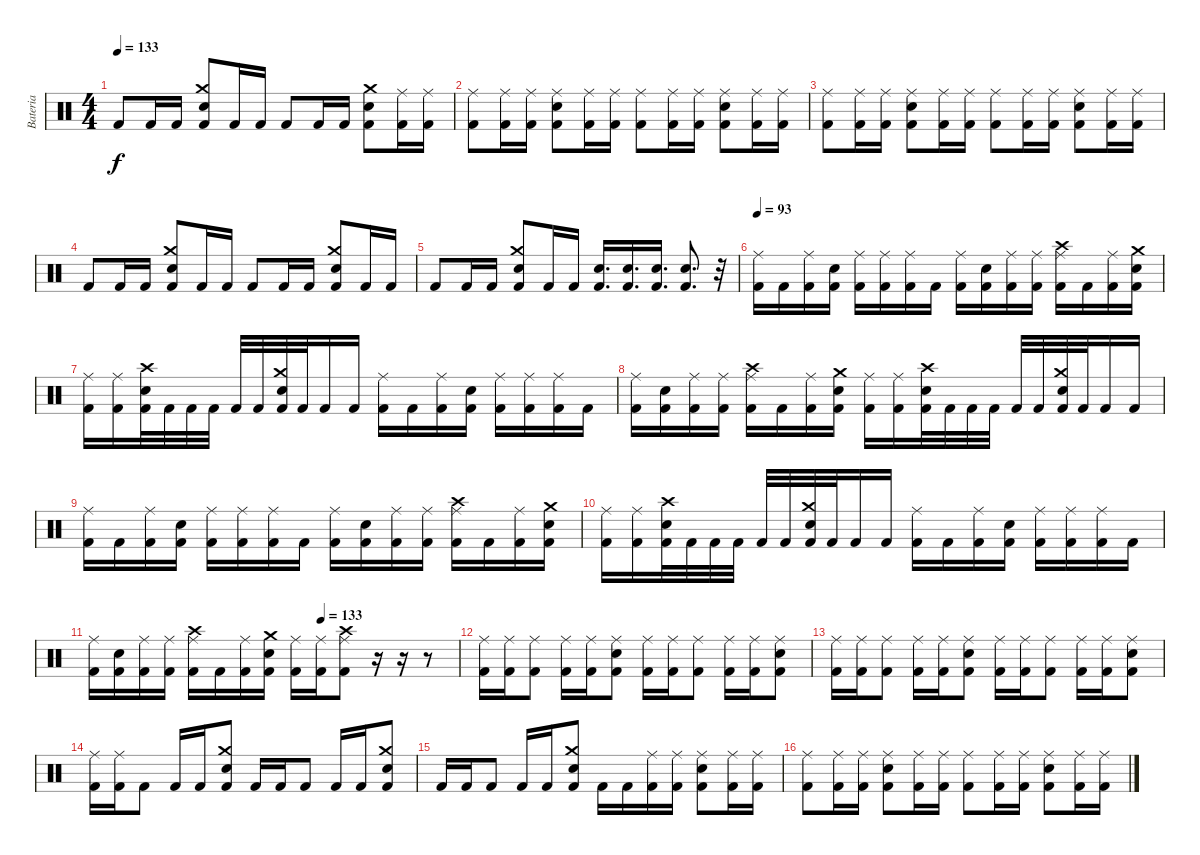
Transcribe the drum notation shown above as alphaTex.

\track ("Bateria" "Bateria") {instrument percussion}
\staff {score}
\articulation defaults
\ts (4 4)
\tempo 133
\clef neutral
\ks c "Kick (hit) 2".8{dy f} "Kick (hit) 2".16 "Kick (hit) 2".16
("Crash medium (hit)" "Snare (hit) 2" "Kick (hit) 2").8 "Kick (hit) 2".16 "Kick (hit) 2".16 "Kick (hit) 2".8 "Kick (hit) 2".16 "Kick (hit) 2".16 ("Crash medium (hit)" "Snare (hit) 2" "Kick (hit) 2").8 ("Ride (middle)" "Kick (hit) 2").16 ("Ride (middle)" "Kick (hit) 2").16 |
("Ride (middle)" "Kick (hit) 2").8 ("Ride (middle)" "Kick (hit) 2").16 ("Ride (middle)" "Kick (hit) 2").16 ("Snare (hit) 2" "Ride (middle)" "Kick (hit) 2").8 ("Ride (middle)" "Kick (hit) 2").16 ("Ride (middle)" "Kick (hit) 2").16 ("Ride (middle)" "Kick (hit) 2").8 ("Ride (middle)" "Kick (hit) 2").16 ("Ride (middle)" "Kick (hit) 2").16 ("Snare (hit) 2" "Ride (middle)" "Kick (hit) 2").8 ("Ride (middle)" "Kick (hit) 2").16 ("Ride (middle)" "Kick (hit) 2").16 |
("Ride (middle)" "Kick (hit) 2").8 ("Ride (middle)" "Kick (hit) 2").16 ("Ride (middle)" "Kick (hit) 2").16 ("Snare (hit) 2" "Ride (middle)" "Kick (hit) 2").8 ("Ride (middle)" "Kick (hit) 2").16 ("Ride (middle)" "Kick (hit) 2").16 ("Ride (middle)" "Kick (hit) 2").8 ("Ride (middle)" "Kick (hit) 2").16 ("Ride (middle)" "Kick (hit) 2").16 ("Snare (hit) 2" "Ride (middle)" "Kick (hit) 2").8 ("Ride (middle)" "Kick (hit) 2").16 ("Ride (middle)" "Kick (hit) 2").16 |
"Kick (hit) 2".8 "Kick (hit) 2".16 "Kick (hit) 2".16 ("Crash medium (hit)" "Snare (hit) 2" "Kick (hit) 2").8 "Kick (hit) 2".16 "Kick (hit) 2".16 "Kick (hit) 2".8 "Kick (hit) 2".16 "Kick (hit) 2".16 ("Crash medium (hit)" "Snare (hit) 2" "Kick (hit) 2").8 "Kick (hit) 2".16 "Kick (hit) 2".16 |
"Kick (hit) 2".8 "Kick (hit) 2".16 "Kick (hit) 2".16 ("Crash medium (hit)" "Snare (hit) 2" "Kick (hit) 2").8 "Kick (hit) 2".16 "Kick (hit) 2".16 ("Snare (hit) 2" "Kick (hit) 2").16{d} ("Snare (hit) 2" "Kick (hit) 2").16{d} ("Snare (hit) 2" "Kick (hit) 2").16{d} ("Snare (hit) 2" "Kick (hit) 2").8{d} r.32 |
\tempo 93
("Ride (middle)" "Kick (hit) 2").16 "Kick (hit) 2".16 ("Ride (middle)" "Kick (hit) 2").16 ("Snare (hit) 2" "Kick (hit) 2").16 ("Ride (middle)" "Kick (hit) 2").16 ("Ride (middle)" "Kick (hit) 2").16 ("Ride (middle)" "Kick (hit) 2").16 "Kick (hit) 2".16 ("Ride (middle)" "Kick (hit) 2").16 ("Snare (hit) 2" "Kick (hit) 2").16 ("Ride (middle)" "Kick (hit) 2").16 ("Ride (middle)" "Kick (hit) 2").16 ("Crash high (hit)" "Ride (middle)" "Kick (hit) 2").16 "Kick (hit) 2".16 ("Ride (middle)" "Kick (hit) 2").16 ("Crash medium (hit)" "Snare (hit) 2" "Kick (hit) 2").16 |
("Ride (middle)" "Kick (hit) 2").16 ("Ride (middle)" "Kick (hit) 2").16 ("Crash high (hit)" "Snare (hit) 2" "Kick (hit) 2").32 "Kick (hit) 2".32 "Kick (hit) 2".32 "Kick (hit) 2".32 "Kick (hit) 2".32 "Kick (hit) 2".32 ("Crash medium (hit)" "Snare (hit) 2" "Kick (hit) 2").32 "Kick (hit) 2".32 "Kick (hit) 2".16 "Kick (hit) 2".16 ("Ride (middle)" "Kick (hit) 2").16 "Kick (hit) 2".16 ("Ride (middle)" "Kick (hit) 2").16 ("Snare (hit) 2" "Kick (hit) 2").16 ("Ride (middle)" "Kick (hit) 2").16 ("Ride (middle)" "Kick (hit) 2").16 ("Ride (middle)" "Kick (hit) 2").16 "Kick (hit) 2".16 |
("Ride (middle)" "Kick (hit) 2").16 ("Snare (hit) 2" "Kick (hit) 2").16 ("Ride (middle)" "Kick (hit) 2").16 ("Ride (middle)" "Kick (hit) 2").16 ("Crash high (hit)" "Ride (middle)" "Kick (hit) 2").16 "Kick (hit) 2".16 ("Ride (middle)" "Kick (hit) 2").16 ("Crash medium (hit)" "Snare (hit) 2" "Kick (hit) 2").16 ("Ride (middle)" "Kick (hit) 2").16 ("Ride (middle)" "Kick (hit) 2").16 ("Crash high (hit)" "Snare (hit) 2" "Kick (hit) 2").32 "Kick (hit) 2".32 "Kick (hit) 2".32 "Kick (hit) 2".32 "Kick (hit) 2".32 "Kick (hit) 2".32 ("Crash medium (hit)" "Snare (hit) 2" "Kick (hit) 2").32 "Kick (hit) 2".32 "Kick (hit) 2".16 "Kick (hit) 2".16 |
("Ride (middle)" "Kick (hit) 2").16 "Kick (hit) 2".16 ("Ride (middle)" "Kick (hit) 2").16 ("Snare (hit) 2" "Kick (hit) 2").16 ("Ride (middle)" "Kick (hit) 2").16 ("Ride (middle)" "Kick (hit) 2").16 ("Ride (middle)" "Kick (hit) 2").16 "Kick (hit) 2".16 ("Ride (middle)" "Kick (hit) 2").16 ("Snare (hit) 2" "Kick (hit) 2").16 ("Ride (middle)" "Kick (hit) 2").16 ("Ride (middle)" "Kick (hit) 2").16 ("Crash high (hit)" "Ride (middle)" "Kick (hit) 2").16 "Kick (hit) 2".16 ("Ride (middle)" "Kick (hit) 2").16 ("Crash medium (hit)" "Snare (hit) 2" "Kick (hit) 2").16 |
("Ride (middle)" "Kick (hit) 2").16 ("Ride (middle)" "Kick (hit) 2").16 ("Crash high (hit)" "Snare (hit) 2" "Kick (hit) 2").32 "Kick (hit) 2".32 "Kick (hit) 2".32 "Kick (hit) 2".32 "Kick (hit) 2".32 "Kick (hit) 2".32 ("Crash medium (hit)" "Snare (hit) 2" "Kick (hit) 2").32 "Kick (hit) 2".32 "Kick (hit) 2".16 "Kick (hit) 2".16 ("Ride (middle)" "Kick (hit) 2").16 "Kick (hit) 2".16 ("Ride (middle)" "Kick (hit) 2").16 ("Snare (hit) 2" "Kick (hit) 2").16 ("Ride (middle)" "Kick (hit) 2").16 ("Ride (middle)" "Kick (hit) 2").16 ("Ride (middle)" "Kick (hit) 2").16 "Kick (hit) 2".16 |
\tempo (133 0.625)
("Ride (middle)" "Kick (hit) 2").16 ("Snare (hit) 2" "Kick (hit) 2").16 ("Ride (middle)" "Kick (hit) 2").16 ("Ride (middle)" "Kick (hit) 2").16 ("Crash high (hit)" "Ride (middle)" "Kick (hit) 2").16 "Kick (hit) 2".16 ("Ride (middle)" "Kick (hit) 2").16 ("Crash medium (hit)" "Snare (hit) 2" "Kick (hit) 2").16 ("Ride (middle)" "Kick (hit) 2").16 ("Ride (middle)" "Kick (hit) 2").16 ("Crash high (hit)" "Ride (middle)" "Kick (hit) 2").8 r.16 r.16 r.8 |
("Ride (middle)" "Kick (hit) 2").16 ("Ride (middle)" "Kick (hit) 2").16 ("Ride (middle)" "Kick (hit) 2").8 ("Ride (middle)" "Kick (hit) 2").16 ("Ride (middle)" "Kick (hit) 2").16 ("Snare (hit) 2" "Ride (middle)" "Kick (hit) 2").8 ("Ride (middle)" "Kick (hit) 2").16 ("Ride (middle)" "Kick (hit) 2").16 ("Ride (middle)" "Kick (hit) 2").8 ("Ride (middle)" "Kick (hit) 2").16 ("Ride (middle)" "Kick (hit) 2").16 ("Snare (hit) 2" "Ride (middle)" "Kick (hit) 2").8 |
("Ride (middle)" "Kick (hit) 2").16 ("Ride (middle)" "Kick (hit) 2").16 ("Ride (middle)" "Kick (hit) 2").8 ("Ride (middle)" "Kick (hit) 2").16 ("Ride (middle)" "Kick (hit) 2").16 ("Snare (hit) 2" "Ride (middle)" "Kick (hit) 2").8 ("Ride (middle)" "Kick (hit) 2").16 ("Ride (middle)" "Kick (hit) 2").16 ("Ride (middle)" "Kick (hit) 2").8 ("Ride (middle)" "Kick (hit) 2").16 ("Ride (middle)" "Kick (hit) 2").16 ("Snare (hit) 2" "Ride (middle)" "Kick (hit) 2").8 |
("Ride (middle)" "Kick (hit) 2").16 ("Ride (middle)" "Kick (hit) 2").16 "Kick (hit) 2".8 "Kick (hit) 2".16 "Kick (hit) 2".16 ("Crash medium (hit)" "Snare (hit) 2" "Kick (hit) 2").8 "Kick (hit) 2".16 "Kick (hit) 2".16 "Kick (hit) 2".8 "Kick (hit) 2".16 "Kick (hit) 2".16 ("Crash medium (hit)" "Snare (hit) 2" "Kick (hit) 2").8 |
"Kick (hit) 2".16 "Kick (hit) 2".16 "Kick (hit) 2".8 "Kick (hit) 2".16 "Kick (hit) 2".16 ("Crash medium (hit)" "Snare (hit) 2" "Kick (hit) 2").8 "Kick (hit) 2".16 "Kick (hit) 2".16 ("Ride (middle)" "Kick (hit) 2").16 ("Ride (middle)" "Kick (hit) 2").16 ("Snare (hit) 2" "Ride (middle)" "Kick (hit) 2").8 ("Ride (middle)" "Kick (hit) 2").16 ("Ride (middle)" "Kick (hit) 2").16 |
("Ride (middle)" "Kick (hit) 2").8 ("Ride (middle)" "Kick (hit) 2").16 ("Ride (middle)" "Kick (hit) 2").16 ("Snare (hit) 2" "Ride (middle)" "Kick (hit) 2").8 ("Ride (middle)" "Kick (hit) 2").16 ("Ride (middle)" "Kick (hit) 2").16 ("Ride (middle)" "Kick (hit) 2").8 ("Ride (middle)" "Kick (hit) 2").16 ("Ride (middle)" "Kick (hit) 2").16 ("Snare (hit) 2" "Ride (middle)" "Kick (hit) 2").8 ("Ride (middle)" "Kick (hit) 2").16 ("Ride (middle)" "Kick (hit) 2").16
